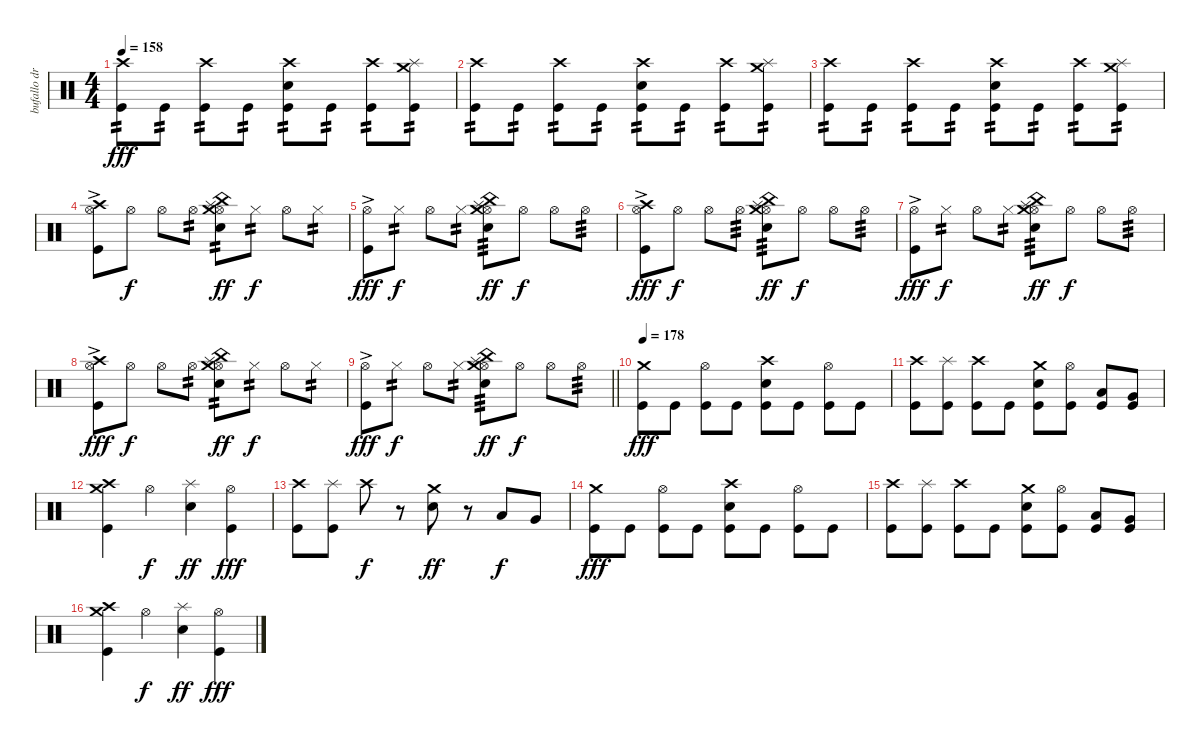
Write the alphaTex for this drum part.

\track ("bufallo drums" "bufallo dr") {instrument percussion}
\staff {score}
\articulation defaults
\ts (4 4)
\tempo 158
\clef neutral
\ks c
("Crash high (hit)" "Kick (hit)").8{tp 2 dy fff} "Kick (hit)".8{tp 2} ("Crash high (hit)" "Kick (hit)").8{tp 2} "Kick (hit)".8{tp 2} ("Crash high (hit)" "Electric Snare (hit)" "Kick (hit)").8{tp 2} "Kick (hit)".8{tp 2} ("Crash high (hit)" "Kick (hit)").8{tp 2} ("Splash (hit)" "Crash medium (hit)" "Kick (hit)").8{tp 2} |
("Crash high (hit)" "Kick (hit)").8{tp 2} "Kick (hit)".8{tp 2} ("Crash high (hit)" "Kick (hit)").8{tp 2} "Kick (hit)".8{tp 2} ("Crash high (hit)" "Electric Snare (hit)" "Kick (hit)").8{tp 2} "Kick (hit)".8{tp 2} ("Crash high (hit)" "Kick (hit)").8{tp 2} ("Splash (hit)" "Crash medium (hit)" "Kick (hit)").8{tp 2} |
("Crash high (hit)" "Kick (hit)").8{tp 2} "Kick (hit)".8{tp 2} ("Crash high (hit)" "Kick (hit)").8{tp 2} "Kick (hit)".8{tp 2} ("Crash high (hit)" "Electric Snare (hit)" "Kick (hit)").8{tp 2} "Kick (hit)".8{tp 2} ("Crash high (hit)" "Kick (hit)").8{tp 2} ("Splash (hit)" "Crash medium (hit)" "Kick (hit)").8{tp 2} |
("Hi-Hat (open)" "Crash high (hit)" "Kick (hit)"{ac}).8 "Hi-Hat (open)".8{dy f} "Hi-Hat (open)".8 "Hi-Hat (open)".8{tp 2} ("Hi-Hat (open)" "Electric Snare (hit)" "Splash (hit)" "China (hit)" "Crash medium (hit)").8{tp 2 dy ff} "Hi-Hat (closed)".8{tp 2 dy f} "Hi-Hat (open)".8 "Hi-Hat (closed)".8{tp 2} |
("Hi-Hat (open)" "Kick (hit)"{ac}).8{dy fff} "Hi-Hat (closed)".8{tp 2 dy f} "Hi-Hat (open)".8 "Hi-Hat (closed)".8{tp 2} ("Hi-Hat (open)" "Electric Snare (hit)" "Splash (hit)" "China (hit)" "Crash medium (hit)").8{tp 3 dy ff} "Hi-Hat (open)".8{dy f} "Hi-Hat (open)".8 "Hi-Hat (open)".8{tp 3} |
("Hi-Hat (open)" "Crash high (hit)" "Kick (hit)"{ac}).8{dy fff} "Hi-Hat (open)".8{dy f} "Hi-Hat (open)".8 "Hi-Hat (open)".8{tp 3} ("Hi-Hat (open)" "Electric Snare (hit)" "Splash (hit)" "China (hit)" "Crash medium (hit)").8{tp 3 dy ff} "Hi-Hat (open)".8{dy f} "Hi-Hat (open)".8 "Hi-Hat (open)".8{tp 3} |
("Hi-Hat (open)" "Kick (hit)"{ac}).8{dy fff} "Hi-Hat (closed)".8{tp 2 dy f} "Hi-Hat (open)".8 "Hi-Hat (closed)".8{tp 2} ("Hi-Hat (open)" "Electric Snare (hit)" "Splash (hit)" "China (hit)" "Crash medium (hit)").8{tp 3 dy ff} "Hi-Hat (open)".8{dy f} "Hi-Hat (open)".8 "Hi-Hat (open)".8{tp 3} |
("Hi-Hat (open)" "Crash high (hit)" "Kick (hit)"{ac}).8{dy fff} "Hi-Hat (open)".8{dy f} "Hi-Hat (open)".8 "Hi-Hat (open)".8{tp 2} ("Hi-Hat (open)" "Electric Snare (hit)" "Splash (hit)" "China (hit)" "Crash medium (hit)").8{tp 2 dy ff} "Hi-Hat (closed)".8{tp 2 dy f} "Hi-Hat (open)".8 "Hi-Hat (closed)".8{tp 2} |
\barLineRight lightlight
("Hi-Hat (open)" "Kick (hit)"{ac}).8{dy fff} "Hi-Hat (closed)".8{tp 2 dy f} "Hi-Hat (open)".8 "Hi-Hat (closed)".8{tp 2} ("Hi-Hat (open)" "Electric Snare (hit)" "Splash (hit)" "China (hit)" "Crash medium (hit)").8{tp 3 dy ff} "Hi-Hat (open)".8{dy f} "Hi-Hat (open)".8 "Hi-Hat (open)".8{tp 3} |
\tempo 178
("Crash medium (hit)" "Kick (hit)").8{dy fff} "Kick (hit)".8 ("Hi-Hat (open)" "Kick (hit)").8 "Kick (hit)".8 ("Electric Snare (hit)" "Crash high (hit)" "Kick (hit)").8 "Kick (hit)".8 ("Hi-Hat (open)" "Kick (hit)").8 "Kick (hit)".8 |
("Crash high (hit)" "Kick (hit)").8 ("Splash (hit)" "Kick (hit)").8 ("Crash high (hit)" "Kick (hit)").8 "Kick (hit)".8 ("Crash medium (hit)" "Electric Snare (hit)" "Kick (hit)").8 ("Hi-Hat (open)" "Kick (hit)").8 ("Low Tom (hit)" "Kick (hit)").8 ("Very Low Tom (hit)" "Kick (hit)").8 |
("Crash medium (hit)" "Crash high (hit)" "Kick (hit)").4 "Hi-Hat (open)".4{dy f} ("Splash (hit)" "Electric Snare (hit)").4{dy ff} ("Hi-Hat (open)" "Kick (hit)").4{dy fff} |
("Crash high (hit)" "Kick (hit)").8 ("Splash (hit)" "Kick (hit)").8 "Crash high (hit)".8{dy f} r.8 ("Crash medium (hit)" "Electric Snare (hit)").8{dy ff} r.8 "Low Tom (hit)".8{dy f} "Very Low Tom (hit)".8 |
("Crash medium (hit)" "Kick (hit)").8{dy fff} "Kick (hit)".8 ("Hi-Hat (open)" "Kick (hit)").8 "Kick (hit)".8 ("Electric Snare (hit)" "Crash high (hit)" "Kick (hit)").8 "Kick (hit)".8 ("Hi-Hat (open)" "Kick (hit)").8 "Kick (hit)".8 |
("Crash high (hit)" "Kick (hit)").8 ("Splash (hit)" "Kick (hit)").8 ("Crash high (hit)" "Kick (hit)").8 "Kick (hit)".8 ("Crash medium (hit)" "Electric Snare (hit)" "Kick (hit)").8 ("Hi-Hat (open)" "Kick (hit)").8 ("Low Tom (hit)" "Kick (hit)").8 ("Very Low Tom (hit)" "Kick (hit)").8 |
("Crash medium (hit)" "Crash high (hit)" "Kick (hit)").4 "Hi-Hat (open)".4{dy f} ("Splash (hit)" "Electric Snare (hit)").4{dy ff} ("Hi-Hat (open)" "Kick (hit)").4{dy fff}
